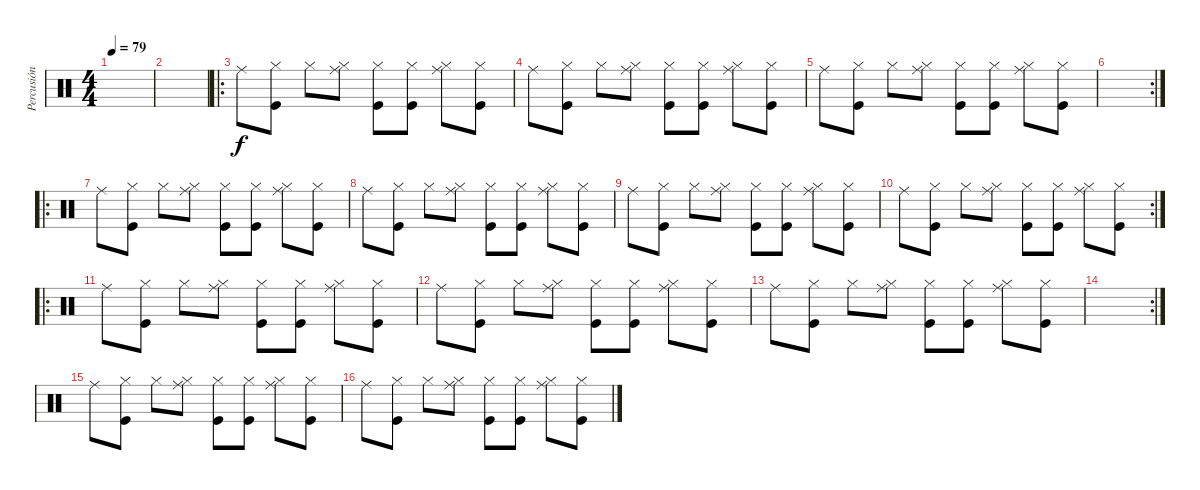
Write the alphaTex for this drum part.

\track ("Percusión" "Percusión") {instrument percussion}
\staff {score}
\articulation defaults
\ts (4 4)
\tempo 79
\clef neutral
\ks c
|
|
\ro "Ride (middle)".8
("Kick (hit)" "Hi-Hat (closed)").8 "Hi-Hat (closed)".8 ("Ride (middle)" "Hi-Hat (closed)").8 ("Kick (hit)" "Hi-Hat (closed)").8 ("Kick (hit)" "Hi-Hat (closed)").8 ("Ride (middle)" "Hi-Hat (closed)").8 ("Kick (hit)" "Hi-Hat (closed)").8 |
"Ride (middle)".8 ("Kick (hit)" "Hi-Hat (closed)").8 "Hi-Hat (closed)".8 ("Ride (middle)" "Hi-Hat (closed)").8 ("Kick (hit)" "Hi-Hat (closed)").8 ("Kick (hit)" "Hi-Hat (closed)").8 ("Ride (middle)" "Hi-Hat (closed)").8 ("Kick (hit)" "Hi-Hat (closed)").8 |
"Ride (middle)".8 ("Kick (hit)" "Hi-Hat (closed)").8 "Hi-Hat (closed)".8 ("Ride (middle)" "Hi-Hat (closed)").8 ("Kick (hit)" "Hi-Hat (closed)").8 ("Kick (hit)" "Hi-Hat (closed)").8 ("Ride (middle)" "Hi-Hat (closed)").8 ("Kick (hit)" "Hi-Hat (closed)").8 |
\rc 2
|
\ro "Ride (middle)".8
("Kick (hit)" "Hi-Hat (closed)").8 "Hi-Hat (closed)".8 ("Ride (middle)" "Hi-Hat (closed)").8 ("Kick (hit)" "Hi-Hat (closed)").8 ("Kick (hit)" "Hi-Hat (closed)").8 ("Ride (middle)" "Hi-Hat (closed)").8 ("Kick (hit)" "Hi-Hat (closed)").8 |
"Ride (middle)".8 ("Kick (hit)" "Hi-Hat (closed)").8 "Hi-Hat (closed)".8 ("Ride (middle)" "Hi-Hat (closed)").8 ("Kick (hit)" "Hi-Hat (closed)").8 ("Kick (hit)" "Hi-Hat (closed)").8 ("Ride (middle)" "Hi-Hat (closed)").8 ("Kick (hit)" "Hi-Hat (closed)").8 |
"Ride (middle)".8 ("Kick (hit)" "Hi-Hat (closed)").8 "Hi-Hat (closed)".8 ("Ride (middle)" "Hi-Hat (closed)").8 ("Kick (hit)" "Hi-Hat (closed)").8 ("Kick (hit)" "Hi-Hat (closed)").8 ("Ride (middle)" "Hi-Hat (closed)").8 ("Kick (hit)" "Hi-Hat (closed)").8 |
\rc 2 "Ride (middle)".8
("Kick (hit)" "Hi-Hat (closed)").8 "Hi-Hat (closed)".8 ("Ride (middle)" "Hi-Hat (closed)").8 ("Kick (hit)" "Hi-Hat (closed)").8 ("Kick (hit)" "Hi-Hat (closed)").8 ("Ride (middle)" "Hi-Hat (closed)").8 ("Kick (hit)" "Hi-Hat (closed)").8 |
\ro "Ride (middle)".8
("Kick (hit)" "Hi-Hat (closed)").8 "Hi-Hat (closed)".8 ("Ride (middle)" "Hi-Hat (closed)").8 ("Kick (hit)" "Hi-Hat (closed)").8 ("Kick (hit)" "Hi-Hat (closed)").8 ("Ride (middle)" "Hi-Hat (closed)").8 ("Kick (hit)" "Hi-Hat (closed)").8 |
"Ride (middle)".8 ("Kick (hit)" "Hi-Hat (closed)").8 "Hi-Hat (closed)".8 ("Ride (middle)" "Hi-Hat (closed)").8 ("Kick (hit)" "Hi-Hat (closed)").8 ("Kick (hit)" "Hi-Hat (closed)").8 ("Ride (middle)" "Hi-Hat (closed)").8 ("Kick (hit)" "Hi-Hat (closed)").8 |
"Ride (middle)".8 ("Kick (hit)" "Hi-Hat (closed)").8 "Hi-Hat (closed)".8 ("Ride (middle)" "Hi-Hat (closed)").8 ("Kick (hit)" "Hi-Hat (closed)").8 ("Kick (hit)" "Hi-Hat (closed)").8 ("Ride (middle)" "Hi-Hat (closed)").8 ("Kick (hit)" "Hi-Hat (closed)").8 |
\rc 2
|
"Ride (middle)".8 ("Kick (hit)" "Hi-Hat (closed)").8 "Hi-Hat (closed)".8 ("Ride (middle)" "Hi-Hat (closed)").8 ("Kick (hit)" "Hi-Hat (closed)").8 ("Kick (hit)" "Hi-Hat (closed)").8 ("Ride (middle)" "Hi-Hat (closed)").8 ("Kick (hit)" "Hi-Hat (closed)").8 |
"Ride (middle)".8 ("Kick (hit)" "Hi-Hat (closed)").8 "Hi-Hat (closed)".8 ("Ride (middle)" "Hi-Hat (closed)").8 ("Kick (hit)" "Hi-Hat (closed)").8 ("Kick (hit)" "Hi-Hat (closed)").8 ("Ride (middle)" "Hi-Hat (closed)").8 ("Kick (hit)" "Hi-Hat (closed)").8
